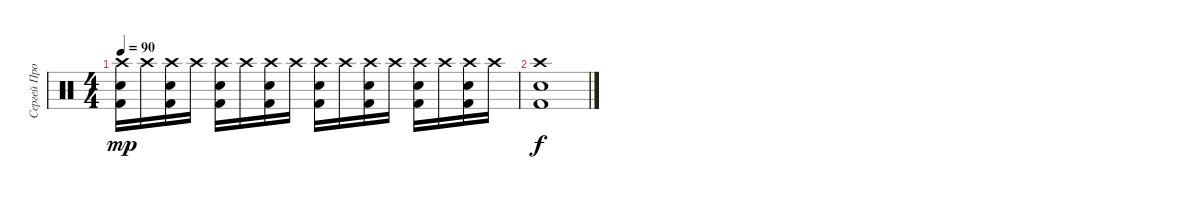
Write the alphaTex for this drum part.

\track ("Сергей Прокофьев" "Сергей Про") {instrument percussion}
\staff {score}
\articulation defaults
\ts (4 4)
\tempo 90
\clef neutral
\ks c
("Crash high (hit)" "Electric Snare (hit)" "Kick (hit) 2").16{dy mp} "Crash high (hit)".16 ("Crash high (hit)" "Electric Snare (hit)" "Kick (hit) 2").16 "Crash high (hit)".16 ("Crash high (hit)" "Electric Snare (hit)" "Kick (hit) 2").16 "Crash high (hit)".16 ("Crash high (hit)" "Electric Snare (hit)" "Kick (hit) 2").16 "Crash high (hit)".16 ("Crash high (hit)" "Electric Snare (hit)" "Kick (hit) 2").16 "Crash high (hit)".16 ("Crash high (hit)" "Electric Snare (hit)" "Kick (hit) 2").16 "Crash high (hit)".16 ("Crash high (hit)" "Electric Snare (hit)" "Kick (hit) 2").16 "Crash high (hit)".16 ("Crash high (hit)" "Electric Snare (hit)" "Kick (hit) 2").16 "Crash high (hit)".16 |
("Crash high (hit)" "Electric Snare (hit)" "Kick (hit) 2").1{dy f}
